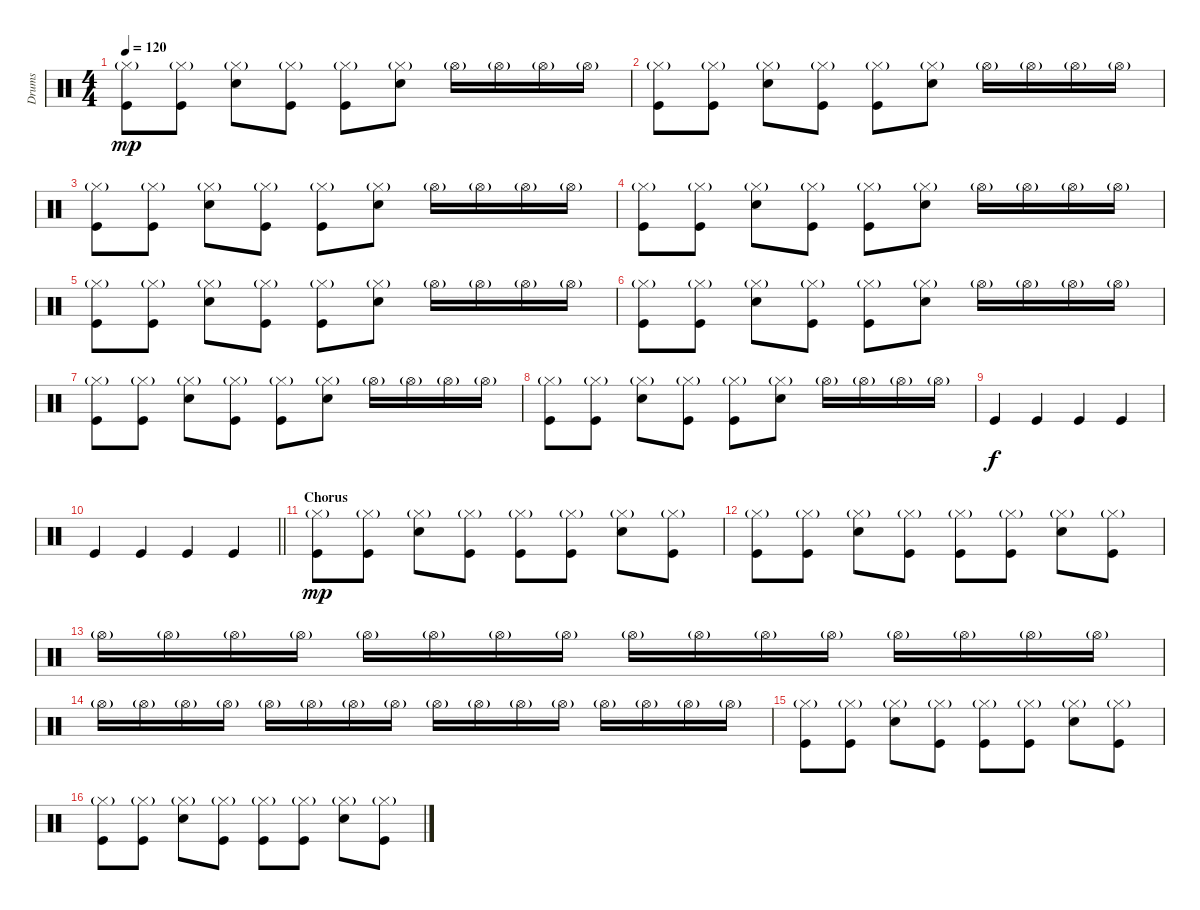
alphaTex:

\track ("Drums" "Drums") {instrument percussion}
\staff {score}
\articulation defaults
\ts (4 4)
\tempo 120
\clef neutral
\ks c
("Hi-Hat (closed)"{g} "Kick (hit)").8{dy mp} ("Hi-Hat (closed)"{g} "Kick (hit)").8 ("Hi-Hat (closed)"{g} "Electric Snare (hit)").8 ("Hi-Hat (closed)"{g} "Kick (hit)").8 ("Hi-Hat (closed)"{g} "Kick (hit)").8 ("Hi-Hat (closed)"{g} "Electric Snare (hit)").8 "Hi-Hat (open)"{g}.16 "Hi-Hat (open)"{g}.16 "Hi-Hat (open)"{g}.16 "Hi-Hat (open)"{g}.16 |
("Hi-Hat (closed)"{g} "Kick (hit)").8 ("Hi-Hat (closed)"{g} "Kick (hit)").8 ("Hi-Hat (closed)"{g} "Electric Snare (hit)").8 ("Hi-Hat (closed)"{g} "Kick (hit)").8 ("Hi-Hat (closed)"{g} "Kick (hit)").8 ("Hi-Hat (closed)"{g} "Electric Snare (hit)").8 "Hi-Hat (open)"{g}.16 "Hi-Hat (open)"{g}.16 "Hi-Hat (open)"{g}.16 "Hi-Hat (open)"{g}.16 |
("Hi-Hat (closed)"{g} "Kick (hit)").8 ("Hi-Hat (closed)"{g} "Kick (hit)").8 ("Hi-Hat (closed)"{g} "Electric Snare (hit)").8 ("Hi-Hat (closed)"{g} "Kick (hit)").8 ("Hi-Hat (closed)"{g} "Kick (hit)").8 ("Hi-Hat (closed)"{g} "Electric Snare (hit)").8 "Hi-Hat (open)"{g}.16 "Hi-Hat (open)"{g}.16 "Hi-Hat (open)"{g}.16 "Hi-Hat (open)"{g}.16 |
("Hi-Hat (closed)"{g} "Kick (hit)").8 ("Hi-Hat (closed)"{g} "Kick (hit)").8 ("Hi-Hat (closed)"{g} "Electric Snare (hit)").8 ("Hi-Hat (closed)"{g} "Kick (hit)").8 ("Hi-Hat (closed)"{g} "Kick (hit)").8 ("Hi-Hat (closed)"{g} "Electric Snare (hit)").8 "Hi-Hat (open)"{g}.16 "Hi-Hat (open)"{g}.16 "Hi-Hat (open)"{g}.16 "Hi-Hat (open)"{g}.16 |
("Hi-Hat (closed)"{g} "Kick (hit)").8 ("Hi-Hat (closed)"{g} "Kick (hit)").8 ("Hi-Hat (closed)"{g} "Electric Snare (hit)").8 ("Hi-Hat (closed)"{g} "Kick (hit)").8 ("Hi-Hat (closed)"{g} "Kick (hit)").8 ("Hi-Hat (closed)"{g} "Electric Snare (hit)").8 "Hi-Hat (open)"{g}.16 "Hi-Hat (open)"{g}.16 "Hi-Hat (open)"{g}.16 "Hi-Hat (open)"{g}.16 |
("Hi-Hat (closed)"{g} "Kick (hit)").8 ("Hi-Hat (closed)"{g} "Kick (hit)").8 ("Hi-Hat (closed)"{g} "Electric Snare (hit)").8 ("Hi-Hat (closed)"{g} "Kick (hit)").8 ("Hi-Hat (closed)"{g} "Kick (hit)").8 ("Hi-Hat (closed)"{g} "Electric Snare (hit)").8 "Hi-Hat (open)"{g}.16 "Hi-Hat (open)"{g}.16 "Hi-Hat (open)"{g}.16 "Hi-Hat (open)"{g}.16 |
("Hi-Hat (closed)"{g} "Kick (hit)").8 ("Hi-Hat (closed)"{g} "Kick (hit)").8 ("Hi-Hat (closed)"{g} "Electric Snare (hit)").8 ("Hi-Hat (closed)"{g} "Kick (hit)").8 ("Hi-Hat (closed)"{g} "Kick (hit)").8 ("Hi-Hat (closed)"{g} "Electric Snare (hit)").8 "Hi-Hat (open)"{g}.16 "Hi-Hat (open)"{g}.16 "Hi-Hat (open)"{g}.16 "Hi-Hat (open)"{g}.16 |
("Hi-Hat (closed)"{g} "Kick (hit)").8 ("Hi-Hat (closed)"{g} "Kick (hit)").8 ("Hi-Hat (closed)"{g} "Electric Snare (hit)").8 ("Hi-Hat (closed)"{g} "Kick (hit)").8 ("Hi-Hat (closed)"{g} "Kick (hit)").8 ("Hi-Hat (closed)"{g} "Electric Snare (hit)").8 "Hi-Hat (open)"{g}.16 "Hi-Hat (open)"{g}.16 "Hi-Hat (open)"{g}.16 "Hi-Hat (open)"{g}.16 |
"Kick (hit)".4{dy f} "Kick (hit)".4 "Kick (hit)".4 "Kick (hit)".4 |
\barLineRight lightlight "Kick (hit)".4 "Kick (hit)".4 "Kick (hit)".4 "Kick (hit)".4
|
\section ("" "Chorus")
("Hi-Hat (closed)"{g} "Kick (hit)").8{dy mp} ("Hi-Hat (closed)"{g} "Kick (hit)").8 ("Hi-Hat (closed)"{g} "Electric Snare (hit)").8 ("Hi-Hat (closed)"{g} "Kick (hit)").8 ("Hi-Hat (closed)"{g} "Kick (hit)").8 ("Hi-Hat (closed)"{g} "Kick (hit)").8 ("Hi-Hat (closed)"{g} "Electric Snare (hit)").8 ("Hi-Hat (closed)"{g} "Kick (hit)").8 |
("Hi-Hat (closed)"{g} "Kick (hit)").8 ("Hi-Hat (closed)"{g} "Kick (hit)").8 ("Hi-Hat (closed)"{g} "Electric Snare (hit)").8 ("Hi-Hat (closed)"{g} "Kick (hit)").8 ("Hi-Hat (closed)"{g} "Kick (hit)").8 ("Hi-Hat (closed)"{g} "Kick (hit)").8 ("Hi-Hat (closed)"{g} "Electric Snare (hit)").8 ("Hi-Hat (closed)"{g} "Kick (hit)").8 |
"Hi-Hat (open)"{g}.16 "Hi-Hat (open)"{g}.16 "Hi-Hat (open)"{g}.16 "Hi-Hat (open)"{g}.16 "Hi-Hat (open)"{g}.16 "Hi-Hat (open)"{g}.16 "Hi-Hat (open)"{g}.16 "Hi-Hat (open)"{g}.16 "Hi-Hat (open)"{g}.16 "Hi-Hat (open)"{g}.16 "Hi-Hat (open)"{g}.16 "Hi-Hat (open)"{g}.16 "Hi-Hat (open)"{g}.16 "Hi-Hat (open)"{g}.16 "Hi-Hat (open)"{g}.16 "Hi-Hat (open)"{g}.16 |
"Hi-Hat (open)"{g}.16 "Hi-Hat (open)"{g}.16 "Hi-Hat (open)"{g}.16 "Hi-Hat (open)"{g}.16 "Hi-Hat (open)"{g}.16 "Hi-Hat (open)"{g}.16 "Hi-Hat (open)"{g}.16 "Hi-Hat (open)"{g}.16 "Hi-Hat (open)"{g}.16 "Hi-Hat (open)"{g}.16 "Hi-Hat (open)"{g}.16 "Hi-Hat (open)"{g}.16 "Hi-Hat (open)"{g}.16 "Hi-Hat (open)"{g}.16 "Hi-Hat (open)"{g}.16 "Hi-Hat (open)"{g}.16 |
("Hi-Hat (closed)"{g} "Kick (hit)").8 ("Hi-Hat (closed)"{g} "Kick (hit)").8 ("Hi-Hat (closed)"{g} "Electric Snare (hit)").8 ("Hi-Hat (closed)"{g} "Kick (hit)").8 ("Hi-Hat (closed)"{g} "Kick (hit)").8 ("Hi-Hat (closed)"{g} "Kick (hit)").8 ("Hi-Hat (closed)"{g} "Electric Snare (hit)").8 ("Hi-Hat (closed)"{g} "Kick (hit)").8 |
("Hi-Hat (closed)"{g} "Kick (hit)").8 ("Hi-Hat (closed)"{g} "Kick (hit)").8 ("Hi-Hat (closed)"{g} "Electric Snare (hit)").8 ("Hi-Hat (closed)"{g} "Kick (hit)").8 ("Hi-Hat (closed)"{g} "Kick (hit)").8 ("Hi-Hat (closed)"{g} "Kick (hit)").8 ("Hi-Hat (closed)"{g} "Electric Snare (hit)").8 ("Hi-Hat (closed)"{g} "Kick (hit)").8
